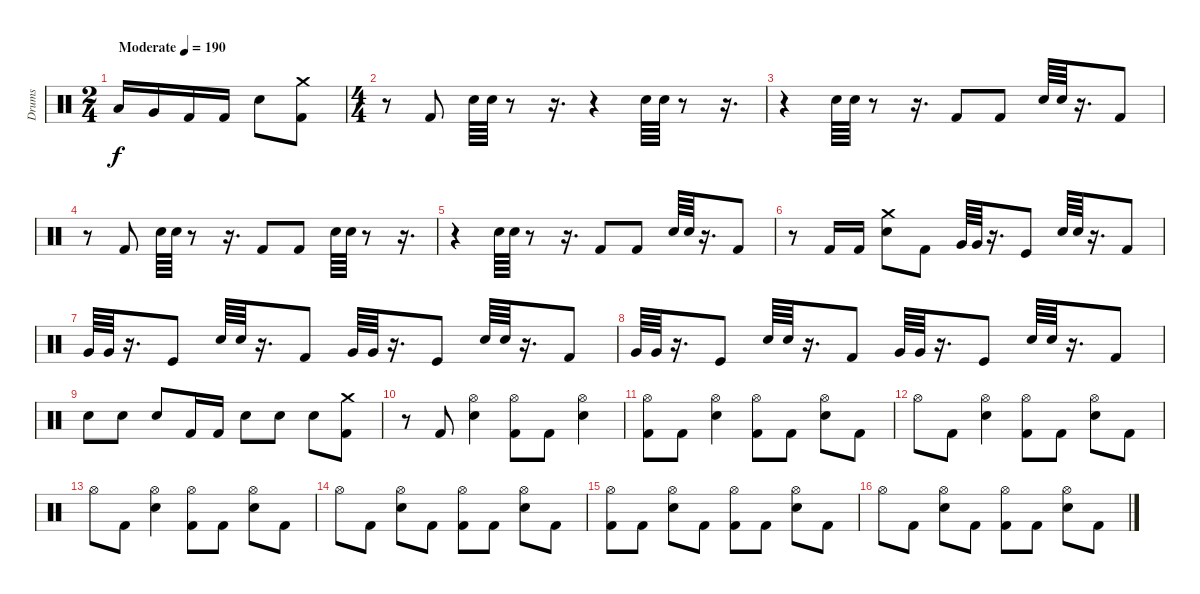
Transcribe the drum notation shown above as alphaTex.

\track ("Drums" "Drums") {instrument percussion}
\staff {score}
\articulation defaults
\ts (2 4)
\tempo (190 "Moderate")
\clef neutral
\ks c "Low Tom (hit)".16{dy f} "Very Low Tom (hit)".16 "Kick (hit) 2".16 "Kick (hit) 2".16 "Electric Snare (hit)".8
("Crash medium (hit)" "Kick (hit) 2").8 |
\ts (4 4)
r.8 "Kick (hit) 2".8 "Electric Snare (hit)".64 "Electric Snare (hit)".64 r.8 r.16{d} r.4 "Electric Snare (hit)".64 "Electric Snare (hit)".64 r.8 r.16{d} |
r.4 "Electric Snare (hit)".64 "Electric Snare (hit)".64 r.8 r.16{d} "Kick (hit) 2".8 "Kick (hit) 2".8 "Electric Snare (hit)".64 "Electric Snare (hit)".64 r.16{d} "Kick (hit) 2".8 |
r.8 "Kick (hit) 2".8 "Electric Snare (hit)".64 "Electric Snare (hit)".64 r.8 r.16{d} "Kick (hit) 2".8 "Kick (hit) 2".8 "Electric Snare (hit)".64 "Electric Snare (hit)".64 r.8 r.16{d} |
r.4 "Electric Snare (hit)".64 "Electric Snare (hit)".64 r.8 r.16{d} "Kick (hit) 2".8 "Kick (hit) 2".8 "Electric Snare (hit)".64 "Electric Snare (hit)".64 r.16{d} "Kick (hit) 2".8 |
r.8 "Kick (hit) 2".16 "Kick (hit) 2".16 ("Crash medium (hit)" "Electric Snare (hit)").8 "Kick (hit) 2".8 "Very Low Tom (hit)".64 "Very Low Tom (hit)".64 r.16{d} "Kick (hit)".8 "Electric Snare (hit)".64 "Electric Snare (hit)".64 r.16{d} "Kick (hit) 2".8 |
"Very Low Tom (hit)".64 "Very Low Tom (hit)".64 r.16{d} "Kick (hit)".8 "Electric Snare (hit)".64 "Electric Snare (hit)".64 r.16{d} "Kick (hit) 2".8 "Very Low Tom (hit)".64 "Very Low Tom (hit)".64 r.16{d} "Kick (hit)".8 "Electric Snare (hit)".64 "Electric Snare (hit)".64 r.16{d} "Kick (hit) 2".8 |
"Very Low Tom (hit)".64 "Very Low Tom (hit)".64 r.16{d} "Kick (hit)".8 "Electric Snare (hit)".64 "Electric Snare (hit)".64 r.16{d} "Kick (hit) 2".8 "Very Low Tom (hit)".64 "Very Low Tom (hit)".64 r.16{d} "Kick (hit)".8 "Electric Snare (hit)".64 "Electric Snare (hit)".64 r.16{d} "Kick (hit) 2".8 |
"Electric Snare (hit)".8 "Electric Snare (hit)".8 "Electric Snare (hit)".8 "Kick (hit) 2".16 "Kick (hit) 2".16 "Electric Snare (hit)".8 "Electric Snare (hit)".8 "Electric Snare (hit)".8 ("Crash medium (hit)" "Kick (hit) 2").8 |
r.8 "Kick (hit) 2".8 ("Hi-Hat (open)" "Electric Snare (hit)").4 ("Hi-Hat (open)" "Kick (hit) 2").8 "Kick (hit) 2".8 ("Hi-Hat (open)" "Electric Snare (hit)").4 |
("Hi-Hat (open)" "Kick (hit) 2").8 "Kick (hit) 2".8 ("Hi-Hat (open)" "Electric Snare (hit)").4 ("Hi-Hat (open)" "Kick (hit) 2").8 "Kick (hit) 2".8 ("Hi-Hat (open)" "Electric Snare (hit)").8 "Kick (hit) 2".8 |
"Hi-Hat (open)".8 "Kick (hit) 2".8 ("Hi-Hat (open)" "Electric Snare (hit)").4 ("Hi-Hat (open)" "Kick (hit) 2").8 "Kick (hit) 2".8 ("Hi-Hat (open)" "Electric Snare (hit)").8 "Kick (hit) 2".8 |
"Hi-Hat (open)".8 "Kick (hit) 2".8 ("Hi-Hat (open)" "Electric Snare (hit)").4 ("Hi-Hat (open)" "Kick (hit) 2").8 "Kick (hit) 2".8 ("Hi-Hat (open)" "Electric Snare (hit)").8 "Kick (hit) 2".8 |
"Hi-Hat (open)".8 "Kick (hit) 2".8 ("Hi-Hat (open)" "Electric Snare (hit)").8 "Kick (hit) 2".8 ("Hi-Hat (open)" "Kick (hit) 2").8 "Kick (hit) 2".8 ("Hi-Hat (open)" "Electric Snare (hit)").8 "Kick (hit) 2".8 |
("Hi-Hat (open)" "Kick (hit) 2").8 "Kick (hit) 2".8 ("Hi-Hat (open)" "Electric Snare (hit)").8 "Kick (hit) 2".8 ("Hi-Hat (open)" "Kick (hit) 2").8 "Kick (hit) 2".8 ("Hi-Hat (open)" "Electric Snare (hit)").8 "Kick (hit) 2".8 |
"Hi-Hat (open)".8 "Kick (hit) 2".8 ("Hi-Hat (open)" "Electric Snare (hit)").8 "Kick (hit) 2".8 ("Hi-Hat (open)" "Kick (hit) 2").8 "Kick (hit) 2".8 ("Hi-Hat (open)" "Electric Snare (hit)").8 "Kick (hit) 2".8
